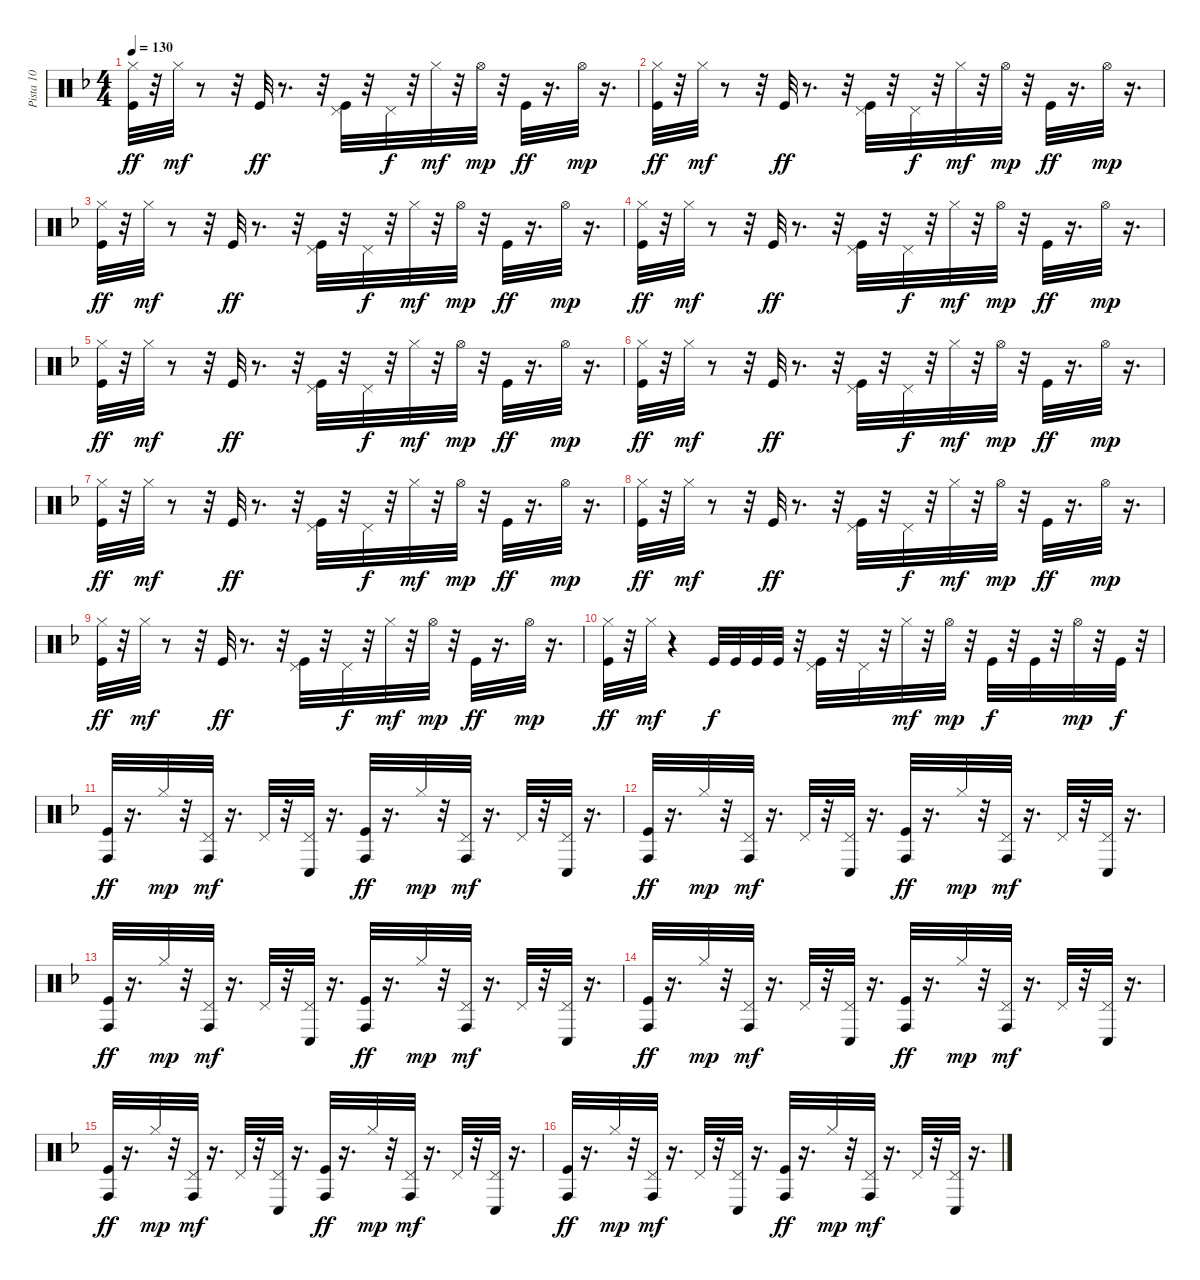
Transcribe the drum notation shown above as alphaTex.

\track ("Pista 10" "Pista 10") {instrument percussion}
\staff {score}
\articulation defaults
\ts (4 4)
\tempo 130
\clef neutral
\ks dminor
("Hi-Hat (closed)" "Kick (hit)").32{dy ff} r.32 "Hi-Hat (closed)".32{dy mf} r.8 r.32 "Kick (hit)".32{dy ff} r.8{d} r.32 ("Pedal Hi-Hat (hit)" "Kick (hit)").32 r.32 "Pedal Hi-Hat (hit)".32{dy f} r.32 "Hi-Hat (closed)".32{dy mf} r.32 "Hi-Hat (open)".32{dy mp} r.32 "Kick (hit)".32{dy ff} r.16{d} "Hi-Hat (open)".32{dy mp} r.16{d} |
("Hi-Hat (closed)" "Kick (hit)").32{dy ff} r.32 "Hi-Hat (closed)".32{dy mf} r.8 r.32 "Kick (hit)".32{dy ff} r.8{d} r.32 ("Pedal Hi-Hat (hit)" "Kick (hit)").32 r.32 "Pedal Hi-Hat (hit)".32{dy f} r.32 "Hi-Hat (closed)".32{dy mf} r.32 "Hi-Hat (open)".32{dy mp} r.32 "Kick (hit)".32{dy ff} r.16{d} "Hi-Hat (open)".32{dy mp} r.16{d} |
("Hi-Hat (closed)" "Kick (hit)").32{dy ff} r.32 "Hi-Hat (closed)".32{dy mf} r.8 r.32 "Kick (hit)".32{dy ff} r.8{d} r.32 ("Pedal Hi-Hat (hit)" "Kick (hit)").32 r.32 "Pedal Hi-Hat (hit)".32{dy f} r.32 "Hi-Hat (closed)".32{dy mf} r.32 "Hi-Hat (open)".32{dy mp} r.32 "Kick (hit)".32{dy ff} r.16{d} "Hi-Hat (open)".32{dy mp} r.16{d} |
("Hi-Hat (closed)" "Kick (hit)").32{dy ff} r.32 "Hi-Hat (closed)".32{dy mf} r.8 r.32 "Kick (hit)".32{dy ff} r.8{d} r.32 ("Pedal Hi-Hat (hit)" "Kick (hit)").32 r.32 "Pedal Hi-Hat (hit)".32{dy f} r.32 "Hi-Hat (closed)".32{dy mf} r.32 "Hi-Hat (open)".32{dy mp} r.32 "Kick (hit)".32{dy ff} r.16{d} "Hi-Hat (open)".32{dy mp} r.16{d} |
("Hi-Hat (closed)" "Kick (hit)").32{dy ff} r.32 "Hi-Hat (closed)".32{dy mf} r.8 r.32 "Kick (hit)".32{dy ff} r.8{d} r.32 ("Pedal Hi-Hat (hit)" "Kick (hit)").32 r.32 "Pedal Hi-Hat (hit)".32{dy f} r.32 "Hi-Hat (closed)".32{dy mf} r.32 "Hi-Hat (open)".32{dy mp} r.32 "Kick (hit)".32{dy ff} r.16{d} "Hi-Hat (open)".32{dy mp} r.16{d} |
("Hi-Hat (closed)" "Kick (hit)").32{dy ff} r.32 "Hi-Hat (closed)".32{dy mf} r.8 r.32 "Kick (hit)".32{dy ff} r.8{d} r.32 ("Pedal Hi-Hat (hit)" "Kick (hit)").32 r.32 "Pedal Hi-Hat (hit)".32{dy f} r.32 "Hi-Hat (closed)".32{dy mf} r.32 "Hi-Hat (open)".32{dy mp} r.32 "Kick (hit)".32{dy ff} r.16{d} "Hi-Hat (open)".32{dy mp} r.16{d} |
("Hi-Hat (closed)" "Kick (hit)").32{dy ff} r.32 "Hi-Hat (closed)".32{dy mf} r.8 r.32 "Kick (hit)".32{dy ff} r.8{d} r.32 ("Pedal Hi-Hat (hit)" "Kick (hit)").32 r.32 "Pedal Hi-Hat (hit)".32{dy f} r.32 "Hi-Hat (closed)".32{dy mf} r.32 "Hi-Hat (open)".32{dy mp} r.32 "Kick (hit)".32{dy ff} r.16{d} "Hi-Hat (open)".32{dy mp} r.16{d} |
("Hi-Hat (closed)" "Kick (hit)").32{dy ff} r.32 "Hi-Hat (closed)".32{dy mf} r.8 r.32 "Kick (hit)".32{dy ff} r.8{d} r.32 ("Pedal Hi-Hat (hit)" "Kick (hit)").32 r.32 "Pedal Hi-Hat (hit)".32{dy f} r.32 "Hi-Hat (closed)".32{dy mf} r.32 "Hi-Hat (open)".32{dy mp} r.32 "Kick (hit)".32{dy ff} r.16{d} "Hi-Hat (open)".32{dy mp} r.16{d} |
("Hi-Hat (closed)" "Kick (hit)").32{dy ff} r.32 "Hi-Hat (closed)".32{dy mf} r.8 r.32 "Kick (hit)".32{dy ff} r.8{d} r.32 ("Pedal Hi-Hat (hit)" "Kick (hit)").32 r.32 "Pedal Hi-Hat (hit)".32{dy f} r.32 "Hi-Hat (closed)".32{dy mf} r.32 "Hi-Hat (open)".32{dy mp} r.32 "Kick (hit)".32{dy ff} r.16{d} "Hi-Hat (open)".32{dy mp} r.16{d} |
("Hi-Hat (closed)" "Kick (hit)").32{dy ff} r.32 "Hi-Hat (closed)".32{dy mf} r.4 "Kick (hit)".32{dy f} "Kick (hit)".32 "Kick (hit)".32 "Kick (hit)".32 r.32 ("Pedal Hi-Hat (hit)" "Kick (hit)").32 r.32 "Pedal Hi-Hat (hit)".32 r.32 "Hi-Hat (closed)".32{dy mf} r.32 "Hi-Hat (open)".32{dy mp} r.32 "Kick (hit)".32{dy f} r.32 "Kick (hit)".32 r.32 "Hi-Hat (open)".32{dy mp} r.32 "Kick (hit)".32{dy f} r.32 |
("Conga high (hit)" "Kick (hit)").32{dy ff} r.16{d} "Hi-Hat (closed)".32{dy mp} r.32 ("Conga high (hit)" "Pedal Hi-Hat (hit)").32{dy mf} r.16{d} "Pedal Hi-Hat (hit)".32 r.32 ("Conga low (hit)" "Pedal Hi-Hat (hit)").32 r.16{d} ("Conga high (hit)" "Kick (hit)").32{dy ff} r.16{d} "Hi-Hat (closed)".32{dy mp} r.32 ("Conga high (hit)" "Pedal Hi-Hat (hit)").32{dy mf} r.16{d} "Pedal Hi-Hat (hit)".32 r.32 ("Conga low (hit)" "Pedal Hi-Hat (hit)").32 r.16{d} |
("Conga high (hit)" "Kick (hit)").32{dy ff} r.16{d} "Hi-Hat (closed)".32{dy mp} r.32 ("Conga high (hit)" "Pedal Hi-Hat (hit)").32{dy mf} r.16{d} "Pedal Hi-Hat (hit)".32 r.32 ("Conga low (hit)" "Pedal Hi-Hat (hit)").32 r.16{d} ("Conga high (hit)" "Kick (hit)").32{dy ff} r.16{d} "Hi-Hat (closed)".32{dy mp} r.32 ("Conga high (hit)" "Pedal Hi-Hat (hit)").32{dy mf} r.16{d} "Pedal Hi-Hat (hit)".32 r.32 ("Conga low (hit)" "Pedal Hi-Hat (hit)").32 r.16{d} |
("Conga high (hit)" "Kick (hit)").32{dy ff} r.16{d} "Hi-Hat (closed)".32{dy mp} r.32 ("Conga high (hit)" "Pedal Hi-Hat (hit)").32{dy mf} r.16{d} "Pedal Hi-Hat (hit)".32 r.32 ("Conga low (hit)" "Pedal Hi-Hat (hit)").32 r.16{d} ("Conga high (hit)" "Kick (hit)").32{dy ff} r.16{d} "Hi-Hat (closed)".32{dy mp} r.32 ("Conga high (hit)" "Pedal Hi-Hat (hit)").32{dy mf} r.16{d} "Pedal Hi-Hat (hit)".32 r.32 ("Conga low (hit)" "Pedal Hi-Hat (hit)").32 r.16{d} |
("Conga high (hit)" "Kick (hit)").32{dy ff} r.16{d} "Hi-Hat (closed)".32{dy mp} r.32 ("Conga high (hit)" "Pedal Hi-Hat (hit)").32{dy mf} r.16{d} "Pedal Hi-Hat (hit)".32 r.32 ("Conga low (hit)" "Pedal Hi-Hat (hit)").32 r.16{d} ("Conga high (hit)" "Kick (hit)").32{dy ff} r.16{d} "Hi-Hat (closed)".32{dy mp} r.32 ("Conga high (hit)" "Pedal Hi-Hat (hit)").32{dy mf} r.16{d} "Pedal Hi-Hat (hit)".32 r.32 ("Conga low (hit)" "Pedal Hi-Hat (hit)").32 r.16{d} |
("Conga high (hit)" "Kick (hit)").32{dy ff} r.16{d} "Hi-Hat (closed)".32{dy mp} r.32 ("Conga high (hit)" "Pedal Hi-Hat (hit)").32{dy mf} r.16{d} "Pedal Hi-Hat (hit)".32 r.32 ("Conga low (hit)" "Pedal Hi-Hat (hit)").32 r.16{d} ("Conga high (hit)" "Kick (hit)").32{dy ff} r.16{d} "Hi-Hat (closed)".32{dy mp} r.32 ("Conga high (hit)" "Pedal Hi-Hat (hit)").32{dy mf} r.16{d} "Pedal Hi-Hat (hit)".32 r.32 ("Conga low (hit)" "Pedal Hi-Hat (hit)").32 r.16{d} |
("Conga high (hit)" "Kick (hit)").32{dy ff} r.16{d} "Hi-Hat (closed)".32{dy mp} r.32 ("Conga high (hit)" "Pedal Hi-Hat (hit)").32{dy mf} r.16{d} "Pedal Hi-Hat (hit)".32 r.32 ("Conga low (hit)" "Pedal Hi-Hat (hit)").32 r.16{d} ("Conga high (hit)" "Kick (hit)").32{dy ff} r.16{d} "Hi-Hat (closed)".32{dy mp} r.32 ("Conga high (hit)" "Pedal Hi-Hat (hit)").32{dy mf} r.16{d} "Pedal Hi-Hat (hit)".32 r.32 ("Conga low (hit)" "Pedal Hi-Hat (hit)").32 r.16{d}
